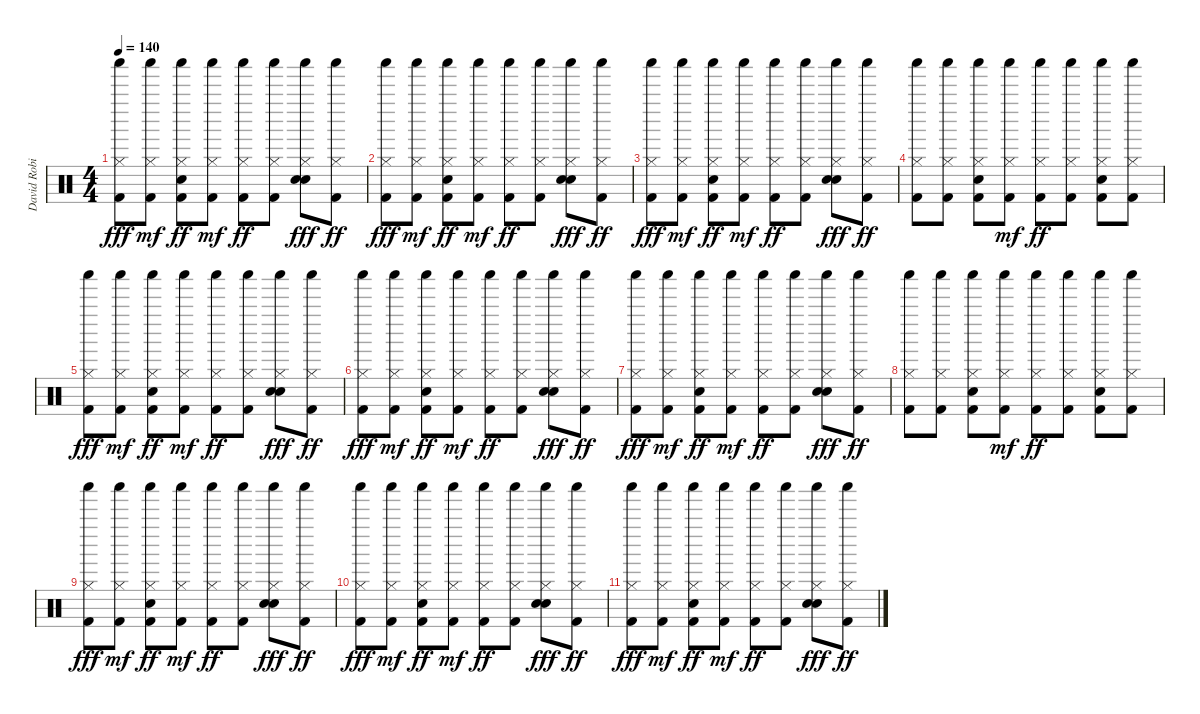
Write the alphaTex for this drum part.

\track ("David Robinson" "David Robi") {instrument percussion}
\staff {score}
\articulation defaults
\ts (4 4)
\tempo 140
\clef neutral
\ks c
("Shaker (hit)" "Hi-Hat (closed)" "Kick (hit) 2").8{dy fff} ("Shaker (hit)" "Hi-Hat (closed)" "Kick (hit) 2").8{dy mf} ("Shaker (hit)" "Hi-Hat (closed)" "Electric Snare (hit)" "Kick (hit) 2").8{dy ff} ("Shaker (hit)" "Hi-Hat (closed)" "Kick (hit) 2").8{dy mf} ("Shaker (hit)" "Hi-Hat (closed)" "Kick (hit) 2").8{dy ff} ("Shaker (hit)" "Hi-Hat (closed)" "Kick (hit) 2").8 ("Shaker (hit)" "Hi-Hat (closed)" "Electric Snare (hit)" "Snare (hit) 2").8{dy fff} ("Shaker (hit)" "Hi-Hat (closed)" "Kick (hit) 2").8{dy ff} |
("Shaker (hit)" "Hi-Hat (closed)" "Kick (hit) 2").8{dy fff} ("Shaker (hit)" "Hi-Hat (closed)" "Kick (hit) 2").8{dy mf} ("Shaker (hit)" "Hi-Hat (closed)" "Electric Snare (hit)" "Kick (hit) 2").8{dy ff} ("Shaker (hit)" "Hi-Hat (closed)" "Kick (hit) 2").8{dy mf} ("Shaker (hit)" "Hi-Hat (closed)" "Kick (hit) 2").8{dy ff} ("Shaker (hit)" "Hi-Hat (closed)" "Kick (hit) 2").8 ("Shaker (hit)" "Hi-Hat (closed)" "Electric Snare (hit)" "Snare (hit) 2").8{dy fff} ("Shaker (hit)" "Hi-Hat (closed)" "Kick (hit) 2").8{dy ff} |
("Shaker (hit)" "Hi-Hat (closed)" "Kick (hit) 2").8{dy fff} ("Shaker (hit)" "Hi-Hat (closed)" "Kick (hit) 2").8{dy mf} ("Shaker (hit)" "Hi-Hat (closed)" "Electric Snare (hit)" "Kick (hit) 2").8{dy ff} ("Shaker (hit)" "Hi-Hat (closed)" "Kick (hit) 2").8{dy mf} ("Shaker (hit)" "Hi-Hat (closed)" "Kick (hit) 2").8{dy ff} ("Shaker (hit)" "Hi-Hat (closed)" "Kick (hit) 2").8 ("Shaker (hit)" "Hi-Hat (closed)" "Electric Snare (hit)" "Snare (hit) 2").8{dy fff} ("Shaker (hit)" "Hi-Hat (closed)" "Kick (hit) 2").8{dy ff} |
("Shaker (hit)" "Hi-Hat (closed)" "Kick (hit) 2").8 ("Shaker (hit)" "Hi-Hat (closed)" "Kick (hit) 2").8 ("Shaker (hit)" "Hi-Hat (closed)" "Electric Snare (hit)" "Kick (hit) 2").8 ("Shaker (hit)" "Hi-Hat (closed)" "Kick (hit) 2").8{dy mf} ("Shaker (hit)" "Hi-Hat (closed)" "Kick (hit) 2").8{dy ff} ("Shaker (hit)" "Hi-Hat (closed)" "Kick (hit) 2").8 ("Shaker (hit)" "Hi-Hat (closed)" "Electric Snare (hit)" "Kick (hit) 2").8 ("Shaker (hit)" "Hi-Hat (closed)" "Kick (hit) 2").8 |
("Shaker (hit)" "Hi-Hat (closed)" "Kick (hit) 2").8{dy fff} ("Shaker (hit)" "Hi-Hat (closed)" "Kick (hit) 2").8{dy mf} ("Shaker (hit)" "Hi-Hat (closed)" "Electric Snare (hit)" "Kick (hit) 2").8{dy ff} ("Shaker (hit)" "Hi-Hat (closed)" "Kick (hit) 2").8{dy mf} ("Shaker (hit)" "Hi-Hat (closed)" "Kick (hit) 2").8{dy ff} ("Shaker (hit)" "Hi-Hat (closed)" "Kick (hit) 2").8 ("Shaker (hit)" "Hi-Hat (closed)" "Electric Snare (hit)" "Snare (hit) 2").8{dy fff} ("Shaker (hit)" "Hi-Hat (closed)" "Kick (hit) 2").8{dy ff} |
("Shaker (hit)" "Hi-Hat (closed)" "Kick (hit) 2").8{dy fff} ("Shaker (hit)" "Hi-Hat (closed)" "Kick (hit) 2").8{dy mf} ("Shaker (hit)" "Hi-Hat (closed)" "Electric Snare (hit)" "Kick (hit) 2").8{dy ff} ("Shaker (hit)" "Hi-Hat (closed)" "Kick (hit) 2").8{dy mf} ("Shaker (hit)" "Hi-Hat (closed)" "Kick (hit) 2").8{dy ff} ("Shaker (hit)" "Hi-Hat (closed)" "Kick (hit) 2").8 ("Shaker (hit)" "Hi-Hat (closed)" "Electric Snare (hit)" "Snare (hit) 2").8{dy fff} ("Shaker (hit)" "Hi-Hat (closed)" "Kick (hit) 2").8{dy ff} |
("Shaker (hit)" "Hi-Hat (closed)" "Kick (hit) 2").8{dy fff} ("Shaker (hit)" "Hi-Hat (closed)" "Kick (hit) 2").8{dy mf} ("Shaker (hit)" "Hi-Hat (closed)" "Electric Snare (hit)" "Kick (hit) 2").8{dy ff} ("Shaker (hit)" "Hi-Hat (closed)" "Kick (hit) 2").8{dy mf} ("Shaker (hit)" "Hi-Hat (closed)" "Kick (hit) 2").8{dy ff} ("Shaker (hit)" "Hi-Hat (closed)" "Kick (hit) 2").8 ("Shaker (hit)" "Hi-Hat (closed)" "Electric Snare (hit)" "Snare (hit) 2").8{dy fff} ("Shaker (hit)" "Hi-Hat (closed)" "Kick (hit) 2").8{dy ff} |
("Shaker (hit)" "Hi-Hat (closed)" "Kick (hit) 2").8 ("Shaker (hit)" "Hi-Hat (closed)" "Kick (hit) 2").8 ("Shaker (hit)" "Hi-Hat (closed)" "Electric Snare (hit)" "Kick (hit) 2").8 ("Shaker (hit)" "Hi-Hat (closed)" "Kick (hit) 2").8{dy mf} ("Shaker (hit)" "Hi-Hat (closed)" "Kick (hit) 2").8{dy ff} ("Shaker (hit)" "Hi-Hat (closed)" "Kick (hit) 2").8 ("Shaker (hit)" "Hi-Hat (closed)" "Electric Snare (hit)" "Kick (hit) 2").8 ("Shaker (hit)" "Hi-Hat (closed)" "Kick (hit) 2").8 |
("Shaker (hit)" "Hi-Hat (closed)" "Kick (hit) 2").8{dy fff} ("Shaker (hit)" "Hi-Hat (closed)" "Kick (hit) 2").8{dy mf} ("Shaker (hit)" "Hi-Hat (closed)" "Electric Snare (hit)" "Kick (hit) 2").8{dy ff} ("Shaker (hit)" "Hi-Hat (closed)" "Kick (hit) 2").8{dy mf} ("Shaker (hit)" "Hi-Hat (closed)" "Kick (hit) 2").8{dy ff} ("Shaker (hit)" "Hi-Hat (closed)" "Kick (hit) 2").8 ("Shaker (hit)" "Hi-Hat (closed)" "Electric Snare (hit)" "Snare (hit) 2").8{dy fff} ("Shaker (hit)" "Hi-Hat (closed)" "Kick (hit) 2").8{dy ff} |
("Shaker (hit)" "Hi-Hat (closed)" "Kick (hit) 2").8{dy fff} ("Shaker (hit)" "Hi-Hat (closed)" "Kick (hit) 2").8{dy mf} ("Shaker (hit)" "Hi-Hat (closed)" "Electric Snare (hit)" "Kick (hit) 2").8{dy ff} ("Shaker (hit)" "Hi-Hat (closed)" "Kick (hit) 2").8{dy mf} ("Shaker (hit)" "Hi-Hat (closed)" "Kick (hit) 2").8{dy ff} ("Shaker (hit)" "Hi-Hat (closed)" "Kick (hit) 2").8 ("Shaker (hit)" "Hi-Hat (closed)" "Electric Snare (hit)" "Snare (hit) 2").8{dy fff} ("Shaker (hit)" "Hi-Hat (closed)" "Kick (hit) 2").8{dy ff} |
("Shaker (hit)" "Hi-Hat (closed)" "Kick (hit) 2").8{dy fff} ("Shaker (hit)" "Hi-Hat (closed)" "Kick (hit) 2").8{dy mf} ("Shaker (hit)" "Hi-Hat (closed)" "Electric Snare (hit)" "Kick (hit) 2").8{dy ff} ("Shaker (hit)" "Hi-Hat (closed)" "Kick (hit) 2").8{dy mf} ("Shaker (hit)" "Hi-Hat (closed)" "Kick (hit) 2").8{dy ff} ("Shaker (hit)" "Hi-Hat (closed)" "Kick (hit) 2").8 ("Shaker (hit)" "Hi-Hat (closed)" "Electric Snare (hit)" "Snare (hit) 2").8{dy fff} ("Shaker (hit)" "Hi-Hat (closed)" "Kick (hit) 2").8{dy ff}
